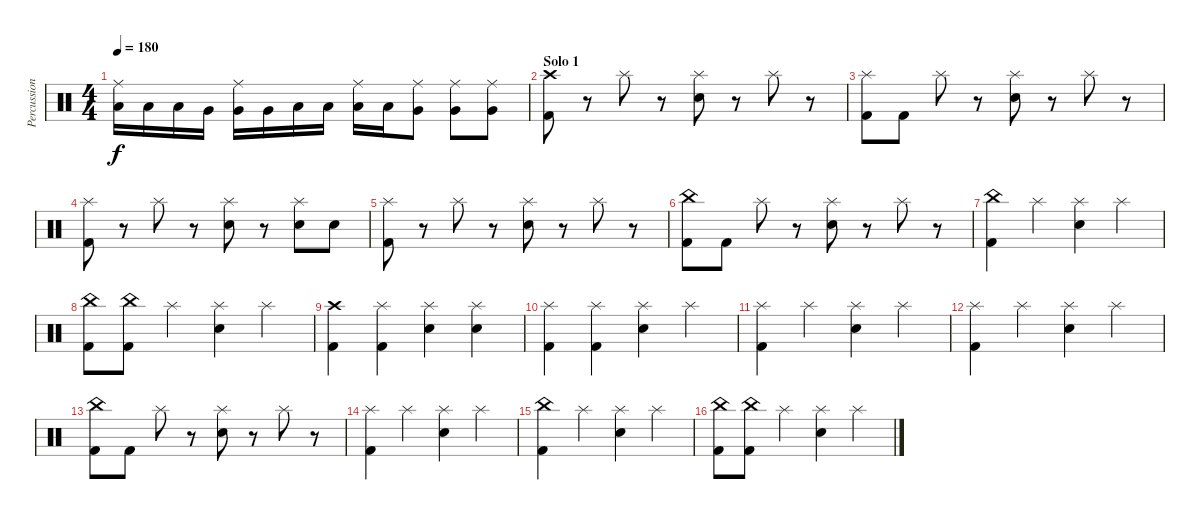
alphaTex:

\track ("Percussion" "Percussion") {instrument percussion}
\staff {score}
\articulation defaults
\ts (4 4)
\tempo 180
\clef neutral
\ks c
("Ride (middle)" "Low Tom (hit)").16{dy f} "Low Tom (hit)".16 "Low Tom (hit)".16 "Very Low Tom (hit)".16 ("Ride (middle)" "Very Low Tom (hit)").16 "Very Low Tom (hit)".16 "Low Floor Tom (hit)".16 "Low Floor Tom (hit)".16 ("Ride (middle)" "Low Floor Tom (hit)").16 "Low Floor Tom (hit)".16 ("Ride (middle)" "Very Low Tom (hit)").8 ("Ride (middle)" "Very Low Tom (hit)").8 ("Ride (middle)" "Very Low Tom (hit)").8 |
\section ("" "Solo 1")
("Crash high (hit)" "Kick (hit) 2").8 r.8 "Splash (hit)".8 r.8 ("Splash (hit)" "Snare (hit) 2").8 r.8 "Splash (hit)".8 r.8 |
("Splash (hit)" "Kick (hit) 2").8 "Kick (hit) 2".8 "Splash (hit)".8 r.8 ("Splash (hit)" "Snare (hit) 2").8 r.8 "Splash (hit)".8 r.8 |
("Splash (hit)" "Kick (hit) 2").8 r.8 "Splash (hit)".8 r.8 ("Splash (hit)" "Snare (hit) 2").8 r.8 ("Splash (hit)" "Snare (hit) 2").8 "Snare (hit) 2".8 |
("Splash (hit)" "Kick (hit) 2").8 r.8 "Splash (hit)".8 r.8 ("Splash (hit)" "Snare (hit) 2").8 r.8 "Splash (hit)".8 r.8 |
("China (hit)" "Kick (hit) 2").8 "Kick (hit) 2".8 "Splash (hit)".8 r.8 ("Splash (hit)" "Snare (hit) 2").8 r.8 "Splash (hit)".8 r.8 |
("China (hit)" "Kick (hit) 2").4 "Splash (hit)".4 ("Splash (hit)" "Snare (hit) 2").4 "Splash (hit)".4 |
("China (hit)" "Kick (hit) 2").8 ("China (hit)" "Kick (hit) 2").8 "Splash (hit)".4 ("Splash (hit)" "Snare (hit) 2").4 "Splash (hit)".4 |
("Crash high (hit)" "Kick (hit) 2").4 ("Splash (hit)" "Kick (hit) 2").4 ("Splash (hit)" "Snare (hit) 2").4 ("Splash (hit)" "Snare (hit) 2").4 |
("Splash (hit)" "Kick (hit) 2").4 ("Splash (hit)" "Kick (hit) 2").4 ("Splash (hit)" "Snare (hit) 2").4 "Splash (hit)".4 |
("Splash (hit)" "Kick (hit) 2").4 "Splash (hit)".4 ("Splash (hit)" "Snare (hit) 2").4 "Splash (hit)".4 |
("Splash (hit)" "Kick (hit) 2").4 "Splash (hit)".4 ("Splash (hit)" "Snare (hit) 2").4 "Splash (hit)".4 |
("China (hit)" "Kick (hit) 2").8 "Kick (hit) 2".8 "Splash (hit)".8 r.8 ("Splash (hit)" "Snare (hit) 2").8 r.8 "Splash (hit)".8 r.8 |
("Splash (hit)" "Kick (hit) 2").4 "Splash (hit)".4 ("Splash (hit)" "Snare (hit) 2").4 "Splash (hit)".4 |
("China (hit)" "Kick (hit) 2").4 "Splash (hit)".4 ("Splash (hit)" "Snare (hit) 2").4 "Splash (hit)".4 |
("China (hit)" "Kick (hit) 2").8 ("China (hit)" "Kick (hit) 2").8 "Splash (hit)".4 ("Splash (hit)" "Snare (hit) 2").4 "Splash (hit)".4
